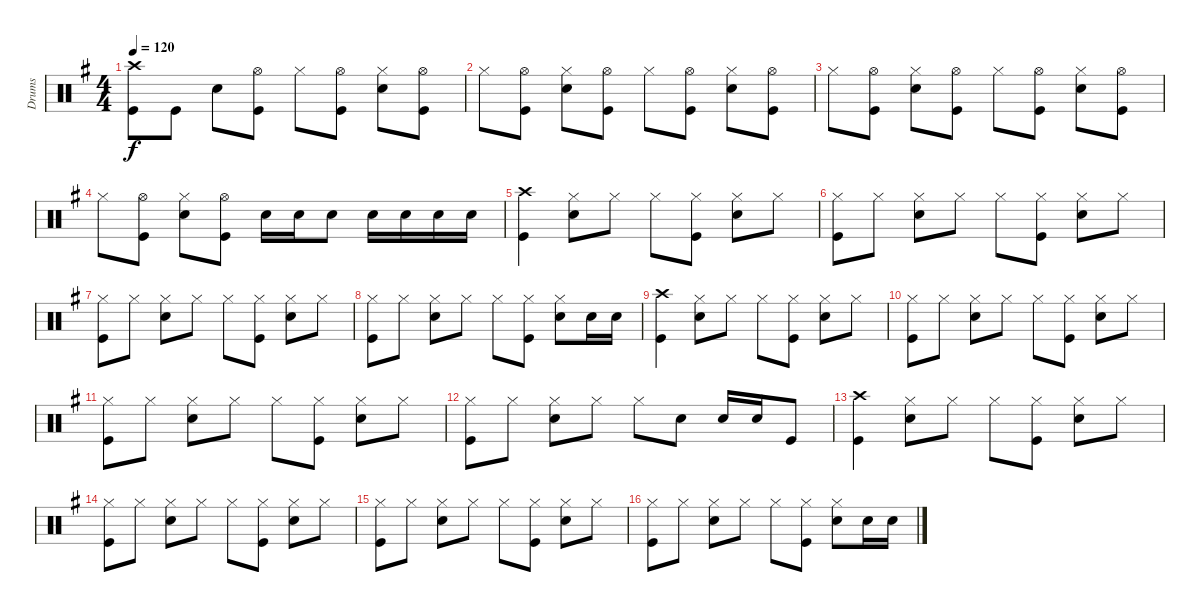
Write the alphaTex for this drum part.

\track ("Drums" "Drums") {instrument percussion}
\staff {score}
\articulation defaults
\ts (4 4)
\tempo 120
\clef neutral
\ks g
("Crash high (hit)" "Kick (hit)").8{dy f} "Kick (hit)".8 "Snare (hit) 2".8 ("Hi-Hat (open)" "Kick (hit)").8 "Hi-Hat (closed)".8 ("Hi-Hat (open)" "Kick (hit)").8 ("Hi-Hat (closed)" "Snare (hit) 2").8 ("Hi-Hat (open)" "Kick (hit)").8 |
"Hi-Hat (closed)".8 ("Hi-Hat (open)" "Kick (hit)").8 ("Hi-Hat (closed)" "Snare (hit) 2").8 ("Hi-Hat (open)" "Kick (hit)").8 "Hi-Hat (closed)".8 ("Hi-Hat (open)" "Kick (hit)").8 ("Hi-Hat (closed)" "Snare (hit) 2").8 ("Hi-Hat (open)" "Kick (hit)").8 |
"Hi-Hat (closed)".8 ("Hi-Hat (open)" "Kick (hit)").8 ("Hi-Hat (closed)" "Snare (hit) 2").8 ("Hi-Hat (open)" "Kick (hit)").8 "Hi-Hat (closed)".8 ("Hi-Hat (open)" "Kick (hit)").8 ("Hi-Hat (closed)" "Snare (hit) 2").8 ("Hi-Hat (open)" "Kick (hit)").8 |
"Hi-Hat (closed)".8 ("Hi-Hat (open)" "Kick (hit)").8 ("Hi-Hat (closed)" "Snare (hit) 2").8 ("Hi-Hat (open)" "Kick (hit)").8 "Snare (hit) 2".16 "Snare (hit) 2".16 "Snare (hit) 2".8 "Snare (hit) 2".16 "Snare (hit) 2".16 "Snare (hit) 2".16 "Snare (hit) 2".16 |
("Crash high (hit)" "Kick (hit)").4 ("Hi-Hat (closed)" "Snare (hit) 2").8 "Hi-Hat (closed)".8 "Hi-Hat (closed)".8 ("Hi-Hat (closed)" "Kick (hit)").8 ("Hi-Hat (closed)" "Snare (hit) 2").8 "Hi-Hat (closed)".8 |
("Hi-Hat (closed)" "Kick (hit)").8 "Hi-Hat (closed)".8 ("Hi-Hat (closed)" "Snare (hit) 2").8 "Hi-Hat (closed)".8 "Hi-Hat (closed)".8 ("Hi-Hat (closed)" "Kick (hit)").8 ("Hi-Hat (closed)" "Snare (hit) 2").8 "Hi-Hat (closed)".8 |
("Hi-Hat (closed)" "Kick (hit)").8 "Hi-Hat (closed)".8 ("Hi-Hat (closed)" "Snare (hit) 2").8 "Hi-Hat (closed)".8 "Hi-Hat (closed)".8 ("Hi-Hat (closed)" "Kick (hit)").8 ("Hi-Hat (closed)" "Snare (hit) 2").8 "Hi-Hat (closed)".8 |
("Hi-Hat (closed)" "Kick (hit)").8 "Hi-Hat (closed)".8 ("Hi-Hat (closed)" "Snare (hit) 2").8 "Hi-Hat (closed)".8 "Hi-Hat (closed)".8 ("Hi-Hat (closed)" "Kick (hit)").8 ("Hi-Hat (closed)" "Snare (hit) 2").8 "Snare (hit) 2".16 "Snare (hit) 2".16 |
("Crash high (hit)" "Kick (hit)").4 ("Hi-Hat (closed)" "Snare (hit) 2").8 "Hi-Hat (closed)".8 "Hi-Hat (closed)".8 ("Hi-Hat (closed)" "Kick (hit)").8 ("Hi-Hat (closed)" "Snare (hit) 2").8 "Hi-Hat (closed)".8 |
("Hi-Hat (closed)" "Kick (hit)").8 "Hi-Hat (closed)".8 ("Hi-Hat (closed)" "Snare (hit) 2").8 "Hi-Hat (closed)".8 "Hi-Hat (closed)".8 ("Hi-Hat (closed)" "Kick (hit)").8 ("Hi-Hat (closed)" "Snare (hit) 2").8 "Hi-Hat (closed)".8 |
("Hi-Hat (closed)" "Kick (hit)").8 "Hi-Hat (closed)".8 ("Hi-Hat (closed)" "Snare (hit) 2").8 "Hi-Hat (closed)".8 "Hi-Hat (closed)".8 ("Hi-Hat (closed)" "Kick (hit)").8 ("Hi-Hat (closed)" "Snare (hit) 2").8 "Hi-Hat (closed)".8 |
("Hi-Hat (closed)" "Kick (hit)").8 "Hi-Hat (closed)".8 ("Hi-Hat (closed)" "Snare (hit) 2").8 "Hi-Hat (closed)".8 "Hi-Hat (closed)".8 "Snare (hit) 2".8 "Snare (hit) 2".16 "Snare (hit) 2".16 "Kick (hit)".8 |
("Crash high (hit)" "Kick (hit)").4 ("Hi-Hat (closed)" "Snare (hit) 2").8 "Hi-Hat (closed)".8 "Hi-Hat (closed)".8 ("Hi-Hat (closed)" "Kick (hit)").8 ("Hi-Hat (closed)" "Snare (hit) 2").8 "Hi-Hat (closed)".8 |
("Hi-Hat (closed)" "Kick (hit)").8 "Hi-Hat (closed)".8 ("Hi-Hat (closed)" "Snare (hit) 2").8 "Hi-Hat (closed)".8 "Hi-Hat (closed)".8 ("Hi-Hat (closed)" "Kick (hit)").8 ("Hi-Hat (closed)" "Snare (hit) 2").8 "Hi-Hat (closed)".8 |
("Hi-Hat (closed)" "Kick (hit)").8 "Hi-Hat (closed)".8 ("Hi-Hat (closed)" "Snare (hit) 2").8 "Hi-Hat (closed)".8 "Hi-Hat (closed)".8 ("Hi-Hat (closed)" "Kick (hit)").8 ("Hi-Hat (closed)" "Snare (hit) 2").8 "Hi-Hat (closed)".8 |
("Hi-Hat (closed)" "Kick (hit)").8 "Hi-Hat (closed)".8 ("Hi-Hat (closed)" "Snare (hit) 2").8 "Hi-Hat (closed)".8 "Hi-Hat (closed)".8 ("Hi-Hat (closed)" "Kick (hit)").8 ("Hi-Hat (closed)" "Snare (hit) 2").8 "Snare (hit) 2".16 "Snare (hit) 2".16
